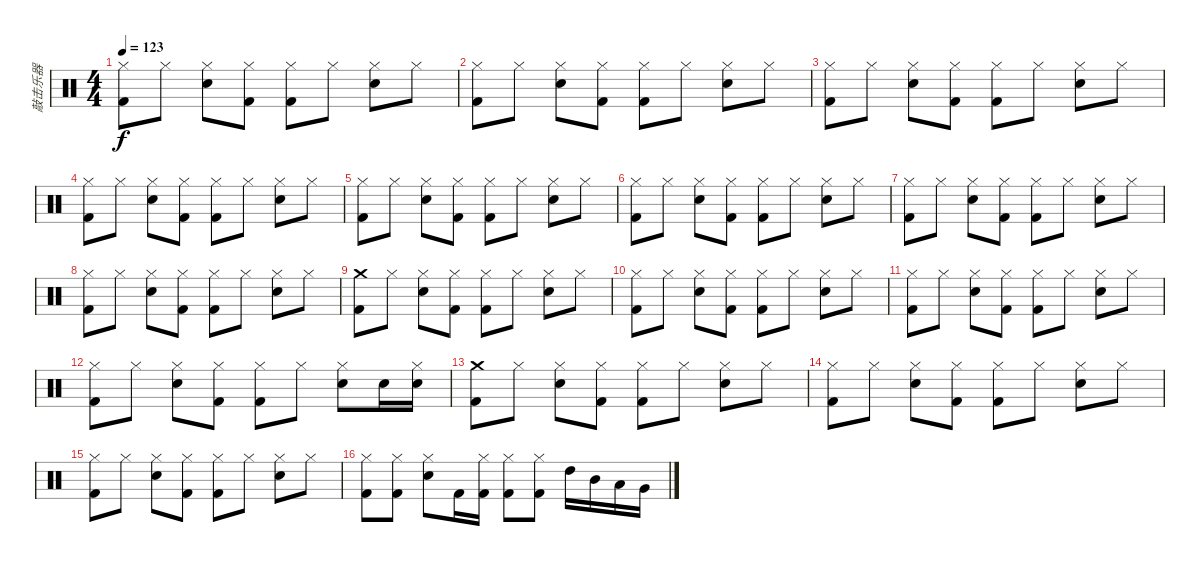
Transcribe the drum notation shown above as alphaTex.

\track ("敲击乐器" "敲击乐器") {instrument percussion}
\staff {score}
\articulation defaults
\ts (4 4)
\tempo 123
\clef neutral
\ks c
("Hi-Hat (closed)" "Kick (hit) 2").8{dy f} "Hi-Hat (closed)".8 ("Hi-Hat (closed)" "Electric Snare (hit)").8 ("Hi-Hat (closed)" "Kick (hit) 2").8 ("Hi-Hat (closed)" "Kick (hit) 2").8 "Hi-Hat (closed)".8 ("Hi-Hat (closed)" "Electric Snare (hit)").8 "Hi-Hat (closed)".8 |
("Hi-Hat (closed)" "Kick (hit) 2").8 "Hi-Hat (closed)".8 ("Hi-Hat (closed)" "Electric Snare (hit)").8 ("Hi-Hat (closed)" "Kick (hit) 2").8 ("Hi-Hat (closed)" "Kick (hit) 2").8 "Hi-Hat (closed)".8 ("Hi-Hat (closed)" "Electric Snare (hit)").8 "Hi-Hat (closed)".8 |
("Hi-Hat (closed)" "Kick (hit) 2").8 "Hi-Hat (closed)".8 ("Hi-Hat (closed)" "Electric Snare (hit)").8 ("Hi-Hat (closed)" "Kick (hit) 2").8 ("Hi-Hat (closed)" "Kick (hit) 2").8 "Hi-Hat (closed)".8 ("Hi-Hat (closed)" "Electric Snare (hit)").8 "Hi-Hat (closed)".8 |
("Hi-Hat (closed)" "Kick (hit) 2").8 "Hi-Hat (closed)".8 ("Hi-Hat (closed)" "Electric Snare (hit)").8 ("Hi-Hat (closed)" "Kick (hit) 2").8 ("Hi-Hat (closed)" "Kick (hit) 2").8 "Hi-Hat (closed)".8 ("Hi-Hat (closed)" "Electric Snare (hit)").8 "Hi-Hat (closed)".8 |
("Hi-Hat (closed)" "Kick (hit) 2").8 "Hi-Hat (closed)".8 ("Hi-Hat (closed)" "Electric Snare (hit)").8 ("Hi-Hat (closed)" "Kick (hit) 2").8 ("Hi-Hat (closed)" "Kick (hit) 2").8 "Hi-Hat (closed)".8 ("Hi-Hat (closed)" "Electric Snare (hit)").8 "Hi-Hat (closed)".8 |
("Hi-Hat (closed)" "Kick (hit) 2").8 "Hi-Hat (closed)".8 ("Hi-Hat (closed)" "Electric Snare (hit)").8 ("Hi-Hat (closed)" "Kick (hit) 2").8 ("Hi-Hat (closed)" "Kick (hit) 2").8 "Hi-Hat (closed)".8 ("Hi-Hat (closed)" "Electric Snare (hit)").8 "Hi-Hat (closed)".8 |
("Hi-Hat (closed)" "Kick (hit) 2").8 "Hi-Hat (closed)".8 ("Hi-Hat (closed)" "Electric Snare (hit)").8 ("Hi-Hat (closed)" "Kick (hit) 2").8 ("Hi-Hat (closed)" "Kick (hit) 2").8 "Hi-Hat (closed)".8 ("Hi-Hat (closed)" "Electric Snare (hit)").8 "Hi-Hat (closed)".8 |
("Hi-Hat (closed)" "Kick (hit) 2").8 "Hi-Hat (closed)".8 ("Hi-Hat (closed)" "Electric Snare (hit)").8 ("Hi-Hat (closed)" "Kick (hit) 2").8 ("Hi-Hat (closed)" "Kick (hit) 2").8 "Hi-Hat (closed)".8 ("Hi-Hat (closed)" "Electric Snare (hit)").8 "Hi-Hat (closed)".8 |
("Crash medium (hit)" "Kick (hit) 2").8 "Hi-Hat (closed)".8 ("Hi-Hat (closed)" "Electric Snare (hit)").8 ("Hi-Hat (closed)" "Kick (hit) 2").8 ("Hi-Hat (closed)" "Kick (hit) 2").8 "Hi-Hat (closed)".8 ("Hi-Hat (closed)" "Electric Snare (hit)").8 "Hi-Hat (closed)".8 |
("Hi-Hat (closed)" "Kick (hit) 2").8 "Hi-Hat (closed)".8 ("Hi-Hat (closed)" "Electric Snare (hit)").8 ("Hi-Hat (closed)" "Kick (hit) 2").8 ("Hi-Hat (closed)" "Kick (hit) 2").8 "Hi-Hat (closed)".8 ("Hi-Hat (closed)" "Electric Snare (hit)").8 "Hi-Hat (closed)".8 |
("Hi-Hat (closed)" "Kick (hit) 2").8 "Hi-Hat (closed)".8 ("Hi-Hat (closed)" "Electric Snare (hit)").8 ("Hi-Hat (closed)" "Kick (hit) 2").8 ("Hi-Hat (closed)" "Kick (hit) 2").8 "Hi-Hat (closed)".8 ("Hi-Hat (closed)" "Electric Snare (hit)").8 "Hi-Hat (closed)".8 |
("Hi-Hat (closed)" "Kick (hit) 2").8 "Hi-Hat (closed)".8 ("Hi-Hat (closed)" "Electric Snare (hit)").8 ("Hi-Hat (closed)" "Kick (hit) 2").8 ("Hi-Hat (closed)" "Kick (hit) 2").8 "Hi-Hat (closed)".8 ("Hi-Hat (closed)" "Electric Snare (hit)").8 "Electric Snare (hit)".16 ("Hi-Hat (closed)" "Electric Snare (hit)").16 |
("Crash medium (hit)" "Kick (hit) 2").8 "Hi-Hat (closed)".8 ("Hi-Hat (closed)" "Electric Snare (hit)").8 ("Hi-Hat (closed)" "Kick (hit) 2").8 ("Hi-Hat (closed)" "Kick (hit) 2").8 "Hi-Hat (closed)".8 ("Hi-Hat (closed)" "Electric Snare (hit)").8 "Hi-Hat (closed)".8 |
("Hi-Hat (closed)" "Kick (hit) 2").8 "Hi-Hat (closed)".8 ("Hi-Hat (closed)" "Electric Snare (hit)").8 ("Hi-Hat (closed)" "Kick (hit) 2").8 ("Hi-Hat (closed)" "Kick (hit) 2").8 "Hi-Hat (closed)".8 ("Hi-Hat (closed)" "Electric Snare (hit)").8 "Hi-Hat (closed)".8 |
("Hi-Hat (closed)" "Kick (hit) 2").8 "Hi-Hat (closed)".8 ("Hi-Hat (closed)" "Electric Snare (hit)").8 ("Hi-Hat (closed)" "Kick (hit) 2").8 ("Hi-Hat (closed)" "Kick (hit) 2").8 "Hi-Hat (closed)".8 ("Hi-Hat (closed)" "Electric Snare (hit)").8 "Hi-Hat (closed)".8 |
("Hi-Hat (closed)" "Kick (hit) 2").8 ("Hi-Hat (closed)" "Kick (hit) 2").8 ("Hi-Hat (closed)" "Electric Snare (hit)").8 "Kick (hit) 2".16 ("Hi-Hat (closed)" "Kick (hit) 2").16 ("Hi-Hat (closed)" "Kick (hit) 2").8 ("Hi-Hat (closed)" "Kick (hit) 2").8 "High Tom (hit)".16 "Mid Tom (hit)".16 "Low Tom (hit)".16 "Very Low Tom (hit)".16
